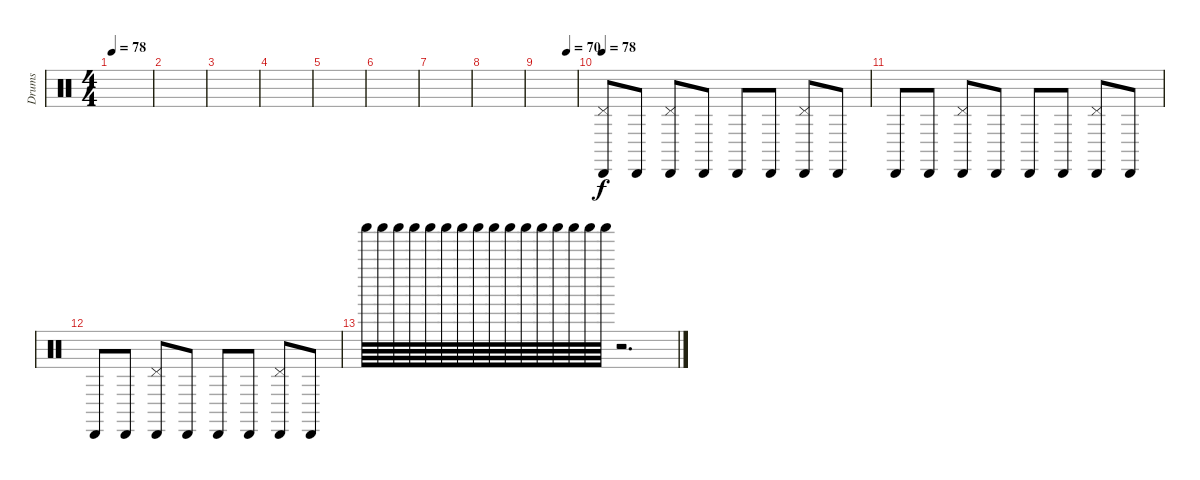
\track ("Drums" "Drums") {instrument percussion}
\staff {score}
\articulation defaults
\ts (4 4)
\tempo 78
\clef neutral
\ks c
|
|
|
|
|
|
|
|
\tempo (70 0.75)
|
\tempo 78
("Cabasa (hit)" "Pedal Hi-Hat (hit)").8{volume 5} "Cabasa (hit)".8{volume 4} ("Cabasa (hit)" "Pedal Hi-Hat (hit)").8{volume 6} "Cabasa (hit)".8{volume 4} "Cabasa (hit)".8 "Cabasa (hit)".8 ("Cabasa (hit)" "Pedal Hi-Hat (hit)").8{volume 6} "Cabasa (hit)".8{volume 4} |
"Cabasa (hit)".8 "Cabasa (hit)".8 ("Cabasa (hit)" "Pedal Hi-Hat (hit)").8{volume 6} "Cabasa (hit)".8{volume 4} "Cabasa (hit)".8 "Cabasa (hit)".8 ("Cabasa (hit)" "Pedal Hi-Hat (hit)").8{volume 6} "Cabasa (hit)".8{volume 4} |
"Cabasa (hit)".8 "Cabasa (hit)".8 ("Cabasa (hit)" "Pedal Hi-Hat (hit)").8{volume 6} "Cabasa (hit)".8{volume 4} "Cabasa (hit)".8 "Cabasa (hit)".8 ("Cabasa (hit)" "Pedal Hi-Hat (hit)").8{volume 6} "Cabasa (hit)".8{volume 4} |
"Shaker (hit)".64{volume 2} "Shaker (hit)".64 "Shaker (hit)".64 "Shaker (hit)".64 "Shaker (hit)".64 "Shaker (hit)".64 "Shaker (hit)".64 "Shaker (hit)".64 "Shaker (hit)".64 "Shaker (hit)".64 "Shaker (hit)".64 "Shaker (hit)".64 "Shaker (hit)".64 "Shaker (hit)".64 "Shaker (hit)".64 "Shaker (hit)".64 r.2{d}
